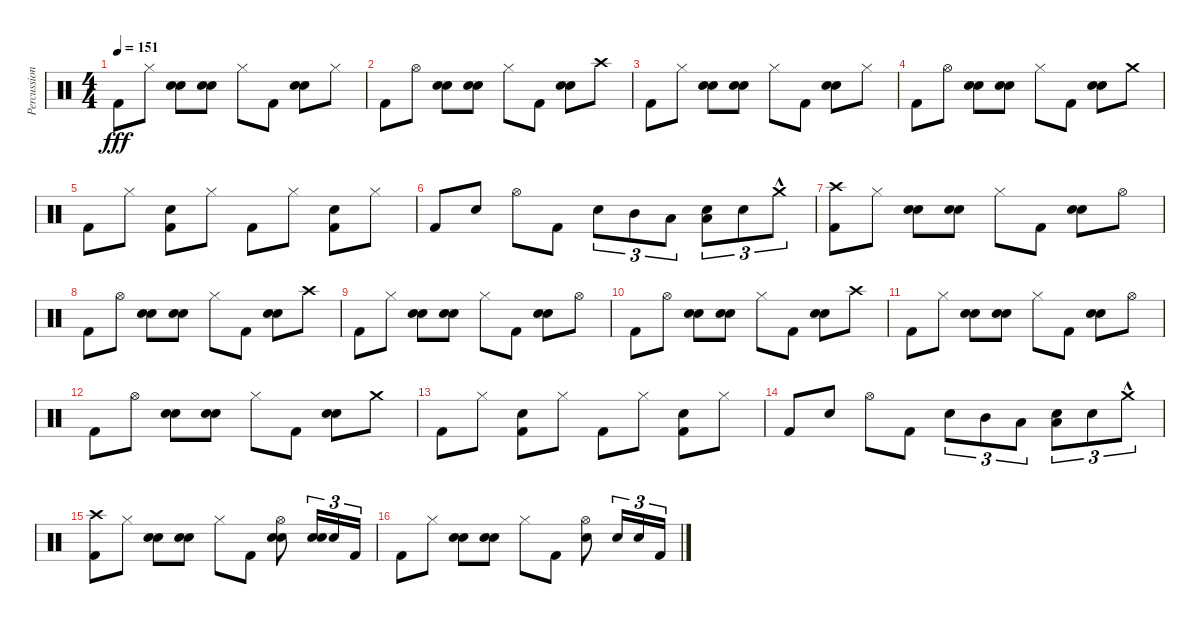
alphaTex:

\track ("Percussion" "Percussion") {instrument percussion bank 1}
\staff {score}
\articulation defaults
\ts (4 4)
\tempo 151
\clef neutral
\ks c "Kick (hit) 2".8{dy fff} "Hi-Hat (closed)".8
("Hand Clap (hit)" "Snare (hit) 2").8 ("Hand Clap (hit)" "Snare (hit) 2").8 "Hi-Hat (closed)".8 "Kick (hit) 2".8 ("Hand Clap (hit)" "Snare (hit) 2").8 "Hi-Hat (closed)".8 |
"Kick (hit) 2".8 "Hi-Hat (open)".8 ("Hand Clap (hit)" "Snare (hit) 2").8 ("Hand Clap (hit)" "Snare (hit) 2").8 "Hi-Hat (closed)".8 "Kick (hit) 2".8 ("Hand Clap (hit)" "Snare (hit) 2").8 "Crash high (hit)".8 |
"Kick (hit) 2".8 "Hi-Hat (closed)".8 ("Hand Clap (hit)" "Snare (hit) 2").8 ("Hand Clap (hit)" "Snare (hit) 2").8 "Hi-Hat (closed)".8 "Kick (hit) 2".8 ("Hand Clap (hit)" "Snare (hit) 2").8 "Hi-Hat (closed)".8 |
"Kick (hit) 2".8 "Hi-Hat (open)".8 ("Hand Clap (hit)" "Snare (hit) 2").8 ("Hand Clap (hit)" "Snare (hit) 2").8 "Hi-Hat (closed)".8 "Kick (hit) 2".8 ("Hand Clap (hit)" "Snare (hit) 2").8 "Crash medium (hit)".8 |
"Kick (hit) 2".8 "Hi-Hat (closed)".8 ("Snare (hit) 2" "Kick (hit) 2").8 "Hi-Hat (closed)".8 "Kick (hit) 2".8 "Hi-Hat (closed)".8 ("Snare (hit) 2" "Kick (hit) 2").8 "Hi-Hat (closed)".8 |
"Kick (hit) 2".8 "Snare (hit) 2".8 "Hi-Hat (open)".8 "Kick (hit) 2".8 "Snare (hit) 2".8{tu (3 2)} "Mid Tom (hit)".8{tu (3 2)} "Low Tom (hit)".8{tu (3 2)} ("Snare (hit) 2" "Low Floor Tom (hit)").8{tu (3 2)} "Snare (hit) 2".8{tu (3 2)} "Crash medium (hit)"{hac}.8{tu (3 2)} |
("Crash high (hit)" "Kick (hit) 2").8 "Hi-Hat (closed)".8 ("Hand Clap (hit)" "Snare (hit) 2").8 ("Hand Clap (hit)" "Snare (hit) 2").8 "Hi-Hat (closed)".8 "Kick (hit) 2".8 ("Hand Clap (hit)" "Snare (hit) 2").8 "Hi-Hat (open)".8 |
"Kick (hit) 2".8 "Hi-Hat (open)".8 ("Hand Clap (hit)" "Snare (hit) 2").8 ("Hand Clap (hit)" "Snare (hit) 2").8 "Hi-Hat (closed)".8 "Kick (hit) 2".8 ("Hand Clap (hit)" "Snare (hit) 2").8 "Crash high (hit)".8 |
"Kick (hit) 2".8 "Hi-Hat (closed)".8 ("Hand Clap (hit)" "Snare (hit) 2").8 ("Hand Clap (hit)" "Snare (hit) 2").8 "Hi-Hat (closed)".8 "Kick (hit) 2".8 ("Hand Clap (hit)" "Snare (hit) 2").8 "Hi-Hat (open)".8 |
"Kick (hit) 2".8 "Hi-Hat (open)".8 ("Hand Clap (hit)" "Snare (hit) 2").8 ("Hand Clap (hit)" "Snare (hit) 2").8 "Hi-Hat (closed)".8 "Kick (hit) 2".8 ("Hand Clap (hit)" "Snare (hit) 2").8 "Crash high (hit)".8 |
"Kick (hit) 2".8 "Hi-Hat (closed)".8 ("Hand Clap (hit)" "Snare (hit) 2").8 ("Hand Clap (hit)" "Snare (hit) 2").8 "Hi-Hat (closed)".8 "Kick (hit) 2".8 ("Hand Clap (hit)" "Snare (hit) 2").8 "Hi-Hat (open)".8 |
"Kick (hit) 2".8 "Hi-Hat (open)".8 ("Hand Clap (hit)" "Snare (hit) 2").8 ("Hand Clap (hit)" "Snare (hit) 2").8 "Hi-Hat (closed)".8 "Kick (hit) 2".8 ("Hand Clap (hit)" "Snare (hit) 2").8 "Crash medium (hit)".8 |
"Kick (hit) 2".8 "Hi-Hat (closed)".8 ("Snare (hit) 2" "Kick (hit) 2").8 "Hi-Hat (closed)".8 "Kick (hit) 2".8 "Hi-Hat (closed)".8 ("Snare (hit) 2" "Kick (hit) 2").8 "Hi-Hat (closed)".8 |
"Kick (hit) 2".8 "Snare (hit) 2".8 "Hi-Hat (open)".8 "Kick (hit) 2".8 "Snare (hit) 2".8{tu (3 2)} "Mid Tom (hit)".8{tu (3 2)} "Low Tom (hit)".8{tu (3 2)} ("Snare (hit) 2" "Low Floor Tom (hit)").8{tu (3 2)} "Snare (hit) 2".8{tu (3 2)} "Crash medium (hit)"{hac}.8{tu (3 2)} |
("Crash high (hit)" "Kick (hit) 2").8 "Hi-Hat (closed)".8 ("Hand Clap (hit)" "Snare (hit) 2").8 ("Hand Clap (hit)" "Snare (hit) 2").8 "Hi-Hat (closed)".8 "Kick (hit) 2".8 ("Hand Clap (hit)" "Snare (hit) 2" "Hi-Hat (open)").8 ("Hand Clap (hit)" "Snare (hit) 2").16{tu (3 2)} "Snare (hit) 2".16{tu (3 2)} "Kick (hit) 2".16{tu (3 2)} |
"Kick (hit) 2".8 "Hi-Hat (closed)".8 ("Hand Clap (hit)" "Snare (hit) 2").8 ("Hand Clap (hit)" "Snare (hit) 2").8 "Hi-Hat (closed)".8 "Kick (hit) 2".8 ("Snare (hit) 2" "Hi-Hat (open)").8 "Snare (hit) 2".16{tu (3 2)} "Snare (hit) 2".16{tu (3 2)} "Kick (hit) 2".16{tu (3 2)}
